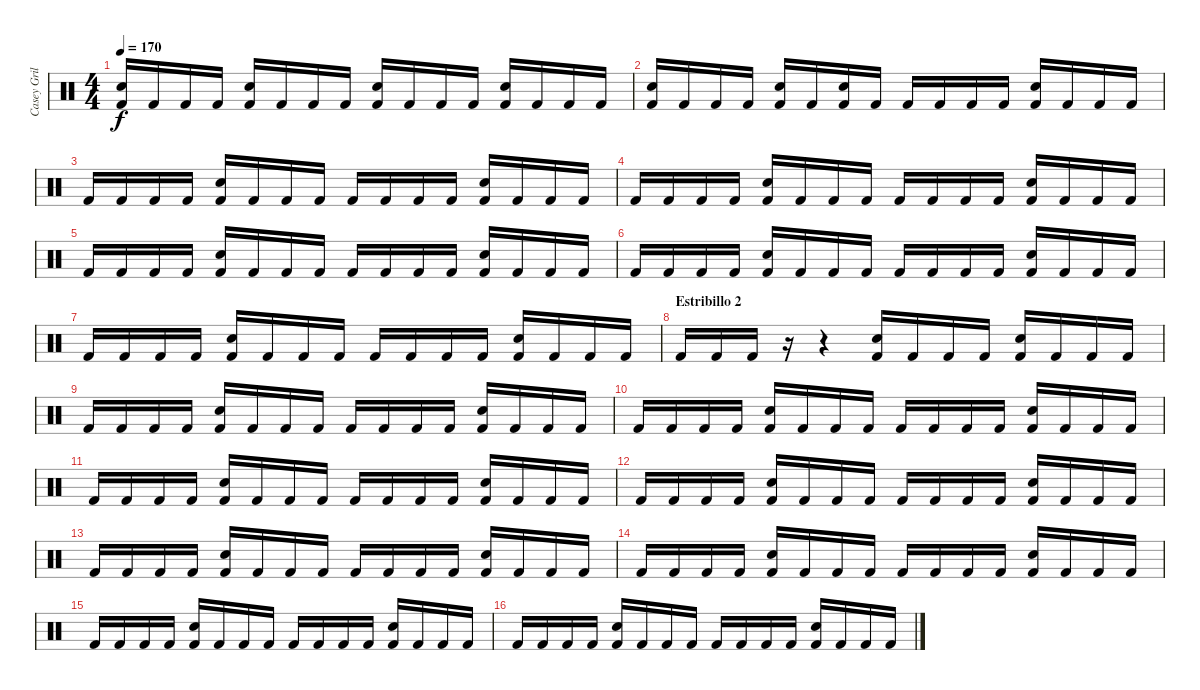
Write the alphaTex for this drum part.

\track ("Casey Grillo" "Casey Gril") {instrument percussion}
\staff {score}
\articulation defaults
\ts (4 4)
\tempo 170
\clef neutral
\ks c
("Snare (hit) 2" "Kick (hit) 2").16{dy f} "Kick (hit) 2".16 "Kick (hit) 2".16 "Kick (hit) 2".16 ("Snare (hit) 2" "Kick (hit) 2").16 "Kick (hit) 2".16 "Kick (hit) 2".16 "Kick (hit) 2".16 ("Snare (hit) 2" "Kick (hit) 2").16 "Kick (hit) 2".16 "Kick (hit) 2".16 "Kick (hit) 2".16 ("Snare (hit) 2" "Kick (hit) 2").16 "Kick (hit) 2".16 "Kick (hit) 2".16 "Kick (hit) 2".16 |
("Snare (hit) 2" "Kick (hit) 2").16 "Kick (hit) 2".16 "Kick (hit) 2".16 "Kick (hit) 2".16 ("Snare (hit) 2" "Kick (hit) 2").16 "Kick (hit) 2".16 ("Snare (hit) 2" "Kick (hit) 2").16 "Kick (hit) 2".16 "Kick (hit) 2".16 "Kick (hit) 2".16 "Kick (hit) 2".16 "Kick (hit) 2".16 ("Snare (hit) 2" "Kick (hit) 2").16 "Kick (hit) 2".16 "Kick (hit) 2".16 "Kick (hit) 2".16 |
"Kick (hit) 2".16 "Kick (hit) 2".16 "Kick (hit) 2".16 "Kick (hit) 2".16 ("Snare (hit) 2" "Kick (hit) 2").16 "Kick (hit) 2".16 "Kick (hit) 2".16 "Kick (hit) 2".16 "Kick (hit) 2".16 "Kick (hit) 2".16 "Kick (hit) 2".16 "Kick (hit) 2".16 ("Snare (hit) 2" "Kick (hit) 2").16 "Kick (hit) 2".16 "Kick (hit) 2".16 "Kick (hit) 2".16 |
"Kick (hit) 2".16 "Kick (hit) 2".16 "Kick (hit) 2".16 "Kick (hit) 2".16 ("Snare (hit) 2" "Kick (hit) 2").16 "Kick (hit) 2".16 "Kick (hit) 2".16 "Kick (hit) 2".16 "Kick (hit) 2".16 "Kick (hit) 2".16 "Kick (hit) 2".16 "Kick (hit) 2".16 ("Snare (hit) 2" "Kick (hit) 2").16 "Kick (hit) 2".16 "Kick (hit) 2".16 "Kick (hit) 2".16 |
"Kick (hit) 2".16 "Kick (hit) 2".16 "Kick (hit) 2".16 "Kick (hit) 2".16 ("Snare (hit) 2" "Kick (hit) 2").16 "Kick (hit) 2".16 "Kick (hit) 2".16 "Kick (hit) 2".16 "Kick (hit) 2".16 "Kick (hit) 2".16 "Kick (hit) 2".16 "Kick (hit) 2".16 ("Snare (hit) 2" "Kick (hit) 2").16 "Kick (hit) 2".16 "Kick (hit) 2".16 "Kick (hit) 2".16 |
"Kick (hit) 2".16 "Kick (hit) 2".16 "Kick (hit) 2".16 "Kick (hit) 2".16 ("Snare (hit) 2" "Kick (hit) 2").16 "Kick (hit) 2".16 "Kick (hit) 2".16 "Kick (hit) 2".16 "Kick (hit) 2".16 "Kick (hit) 2".16 "Kick (hit) 2".16 "Kick (hit) 2".16 ("Snare (hit) 2" "Kick (hit) 2").16 "Kick (hit) 2".16 "Kick (hit) 2".16 "Kick (hit) 2".16 |
"Kick (hit) 2".16 "Kick (hit) 2".16 "Kick (hit) 2".16 "Kick (hit) 2".16 ("Snare (hit) 2" "Kick (hit) 2").16 "Kick (hit) 2".16 "Kick (hit) 2".16 "Kick (hit) 2".16 "Kick (hit) 2".16 "Kick (hit) 2".16 "Kick (hit) 2".16 "Kick (hit) 2".16 ("Snare (hit) 2" "Kick (hit) 2").16 "Kick (hit) 2".16 "Kick (hit) 2".16 "Kick (hit) 2".16 |
\section ("" "Estribillo 2")
"Kick (hit) 2".16 "Kick (hit) 2".16 "Kick (hit) 2".16 r.16 r.4 ("Snare (hit) 2" "Kick (hit) 2").16 "Kick (hit) 2".16 "Kick (hit) 2".16 "Kick (hit) 2".16 ("Snare (hit) 2" "Kick (hit) 2").16 "Kick (hit) 2".16 "Kick (hit) 2".16 "Kick (hit) 2".16 |
"Kick (hit) 2".16 "Kick (hit) 2".16 "Kick (hit) 2".16 "Kick (hit) 2".16 ("Snare (hit) 2" "Kick (hit) 2").16 "Kick (hit) 2".16 "Kick (hit) 2".16 "Kick (hit) 2".16 "Kick (hit) 2".16 "Kick (hit) 2".16 "Kick (hit) 2".16 "Kick (hit) 2".16 ("Snare (hit) 2" "Kick (hit) 2").16 "Kick (hit) 2".16 "Kick (hit) 2".16 "Kick (hit) 2".16 |
"Kick (hit) 2".16 "Kick (hit) 2".16 "Kick (hit) 2".16 "Kick (hit) 2".16 ("Snare (hit) 2" "Kick (hit) 2").16 "Kick (hit) 2".16 "Kick (hit) 2".16 "Kick (hit) 2".16 "Kick (hit) 2".16 "Kick (hit) 2".16 "Kick (hit) 2".16 "Kick (hit) 2".16 ("Snare (hit) 2" "Kick (hit) 2").16 "Kick (hit) 2".16 "Kick (hit) 2".16 "Kick (hit) 2".16 |
"Kick (hit) 2".16 "Kick (hit) 2".16 "Kick (hit) 2".16 "Kick (hit) 2".16 ("Snare (hit) 2" "Kick (hit) 2").16 "Kick (hit) 2".16 "Kick (hit) 2".16 "Kick (hit) 2".16 "Kick (hit) 2".16 "Kick (hit) 2".16 "Kick (hit) 2".16 "Kick (hit) 2".16 ("Snare (hit) 2" "Kick (hit) 2").16 "Kick (hit) 2".16 "Kick (hit) 2".16 "Kick (hit) 2".16 |
"Kick (hit) 2".16 "Kick (hit) 2".16 "Kick (hit) 2".16 "Kick (hit) 2".16 ("Snare (hit) 2" "Kick (hit) 2").16 "Kick (hit) 2".16 "Kick (hit) 2".16 "Kick (hit) 2".16 "Kick (hit) 2".16 "Kick (hit) 2".16 "Kick (hit) 2".16 "Kick (hit) 2".16 ("Snare (hit) 2" "Kick (hit) 2").16 "Kick (hit) 2".16 "Kick (hit) 2".16 "Kick (hit) 2".16 |
"Kick (hit) 2".16 "Kick (hit) 2".16 "Kick (hit) 2".16 "Kick (hit) 2".16 ("Snare (hit) 2" "Kick (hit) 2").16 "Kick (hit) 2".16 "Kick (hit) 2".16 "Kick (hit) 2".16 "Kick (hit) 2".16 "Kick (hit) 2".16 "Kick (hit) 2".16 "Kick (hit) 2".16 ("Snare (hit) 2" "Kick (hit) 2").16 "Kick (hit) 2".16 "Kick (hit) 2".16 "Kick (hit) 2".16 |
"Kick (hit) 2".16 "Kick (hit) 2".16 "Kick (hit) 2".16 "Kick (hit) 2".16 ("Snare (hit) 2" "Kick (hit) 2").16 "Kick (hit) 2".16 "Kick (hit) 2".16 "Kick (hit) 2".16 "Kick (hit) 2".16 "Kick (hit) 2".16 "Kick (hit) 2".16 "Kick (hit) 2".16 ("Snare (hit) 2" "Kick (hit) 2").16 "Kick (hit) 2".16 "Kick (hit) 2".16 "Kick (hit) 2".16 |
"Kick (hit) 2".16 "Kick (hit) 2".16 "Kick (hit) 2".16 "Kick (hit) 2".16 ("Snare (hit) 2" "Kick (hit) 2").16 "Kick (hit) 2".16 "Kick (hit) 2".16 "Kick (hit) 2".16 "Kick (hit) 2".16 "Kick (hit) 2".16 "Kick (hit) 2".16 "Kick (hit) 2".16 ("Snare (hit) 2" "Kick (hit) 2").16 "Kick (hit) 2".16 "Kick (hit) 2".16 "Kick (hit) 2".16 |
"Kick (hit) 2".16 "Kick (hit) 2".16 "Kick (hit) 2".16 "Kick (hit) 2".16 ("Snare (hit) 2" "Kick (hit) 2").16 "Kick (hit) 2".16 "Kick (hit) 2".16 "Kick (hit) 2".16 "Kick (hit) 2".16 "Kick (hit) 2".16 "Kick (hit) 2".16 "Kick (hit) 2".16 ("Snare (hit) 2" "Kick (hit) 2").16 "Kick (hit) 2".16 "Kick (hit) 2".16 "Kick (hit) 2".16
